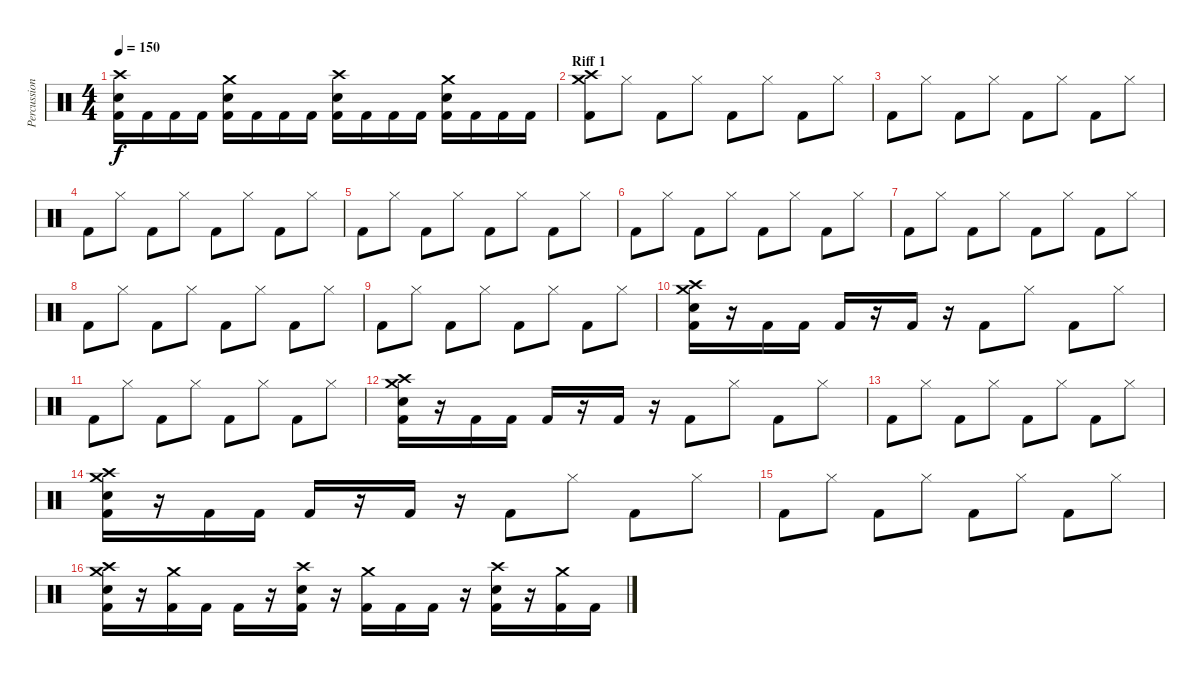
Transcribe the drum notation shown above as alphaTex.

\track ("Percussion" "Percussion") {instrument percussion}
\staff {score}
\articulation defaults
\ts (4 4)
\tempo 150
\clef neutral
\ks c
("Crash high (hit)" "Electric Snare (hit)" "Kick (hit) 2").16{dy f} "Kick (hit) 2".16 "Kick (hit) 2".16 "Kick (hit) 2".16 ("Crash medium (hit)" "Electric Snare (hit)" "Kick (hit) 2").16 "Kick (hit) 2".16 "Kick (hit) 2".16 "Kick (hit) 2".16 ("Crash high (hit)" "Electric Snare (hit)" "Kick (hit) 2").16 "Kick (hit) 2".16 "Kick (hit) 2".16 "Kick (hit) 2".16 ("Crash medium (hit)" "Electric Snare (hit)" "Kick (hit) 2").16 "Kick (hit) 2".16 "Kick (hit) 2".16 "Kick (hit) 2".16 |
\section ("" "Riff 1")
("Crash medium (hit)" "Crash high (hit)" "Kick (hit) 2").8 "Hi-Hat (closed)".8 "Kick (hit) 2".8 "Hi-Hat (closed)".8 "Kick (hit) 2".8 "Hi-Hat (closed)".8 "Kick (hit) 2".8 "Hi-Hat (closed)".8 |
"Kick (hit) 2".8 "Hi-Hat (closed)".8 "Kick (hit) 2".8 "Hi-Hat (closed)".8 "Kick (hit) 2".8 "Hi-Hat (closed)".8 "Kick (hit) 2".8 "Hi-Hat (closed)".8 |
"Kick (hit) 2".8 "Hi-Hat (closed)".8 "Kick (hit) 2".8 "Hi-Hat (closed)".8 "Kick (hit) 2".8 "Hi-Hat (closed)".8 "Kick (hit) 2".8 "Hi-Hat (closed)".8 |
"Kick (hit) 2".8 "Hi-Hat (closed)".8 "Kick (hit) 2".8 "Hi-Hat (closed)".8 "Kick (hit) 2".8 "Hi-Hat (closed)".8 "Kick (hit) 2".8 "Hi-Hat (closed)".8 |
"Kick (hit) 2".8 "Hi-Hat (closed)".8 "Kick (hit) 2".8 "Hi-Hat (closed)".8 "Kick (hit) 2".8 "Hi-Hat (closed)".8 "Kick (hit) 2".8 "Hi-Hat (closed)".8 |
"Kick (hit) 2".8 "Hi-Hat (closed)".8 "Kick (hit) 2".8 "Hi-Hat (closed)".8 "Kick (hit) 2".8 "Hi-Hat (closed)".8 "Kick (hit) 2".8 "Hi-Hat (closed)".8 |
"Kick (hit) 2".8 "Hi-Hat (closed)".8 "Kick (hit) 2".8 "Hi-Hat (closed)".8 "Kick (hit) 2".8 "Hi-Hat (closed)".8 "Kick (hit) 2".8 "Hi-Hat (closed)".8 |
"Kick (hit) 2".8 "Hi-Hat (closed)".8 "Kick (hit) 2".8 "Hi-Hat (closed)".8 "Kick (hit) 2".8 "Hi-Hat (closed)".8 "Kick (hit) 2".8 "Hi-Hat (closed)".8 |
("Crash medium (hit)" "Crash high (hit)" "Electric Snare (hit)" "Kick (hit) 2").16 r.16 "Kick (hit) 2".16 "Kick (hit) 2".16 "Kick (hit) 2".16 r.16 "Kick (hit) 2".16 r.16 "Kick (hit) 2".8 "Hi-Hat (closed)".8 "Kick (hit) 2".8 "Hi-Hat (closed)".8 |
"Kick (hit) 2".8 "Hi-Hat (closed)".8 "Kick (hit) 2".8 "Hi-Hat (closed)".8 "Kick (hit) 2".8 "Hi-Hat (closed)".8 "Kick (hit) 2".8 "Hi-Hat (closed)".8 |
("Crash medium (hit)" "Crash high (hit)" "Electric Snare (hit)" "Kick (hit) 2").16 r.16 "Kick (hit) 2".16 "Kick (hit) 2".16 "Kick (hit) 2".16 r.16 "Kick (hit) 2".16 r.16 "Kick (hit) 2".8 "Hi-Hat (closed)".8 "Kick (hit) 2".8 "Hi-Hat (closed)".8 |
"Kick (hit) 2".8 "Hi-Hat (closed)".8 "Kick (hit) 2".8 "Hi-Hat (closed)".8 "Kick (hit) 2".8 "Hi-Hat (closed)".8 "Kick (hit) 2".8 "Hi-Hat (closed)".8 |
("Crash medium (hit)" "Crash high (hit)" "Electric Snare (hit)" "Kick (hit) 2").16 r.16 "Kick (hit) 2".16 "Kick (hit) 2".16 "Kick (hit) 2".16 r.16 "Kick (hit) 2".16 r.16 "Kick (hit) 2".8 "Hi-Hat (closed)".8 "Kick (hit) 2".8 "Hi-Hat (closed)".8 |
"Kick (hit) 2".8 "Hi-Hat (closed)".8 "Kick (hit) 2".8 "Hi-Hat (closed)".8 "Kick (hit) 2".8 "Hi-Hat (closed)".8 "Kick (hit) 2".8 "Hi-Hat (closed)".8 |
("Crash medium (hit)" "Crash high (hit)" "Electric Snare (hit)" "Kick (hit) 2").16 r.16 ("Crash medium (hit)" "Kick (hit) 2").16 "Kick (hit) 2".16 "Kick (hit) 2".16 r.16 ("Crash high (hit)" "Electric Snare (hit)" "Kick (hit) 2").16 r.16 ("Crash medium (hit)" "Kick (hit) 2").16 "Kick (hit) 2".16 "Kick (hit) 2".16 r.16 ("Crash high (hit)" "Electric Snare (hit)" "Kick (hit) 2").16 r.16 ("Crash medium (hit)" "Kick (hit) 2").16 "Kick (hit) 2".16
